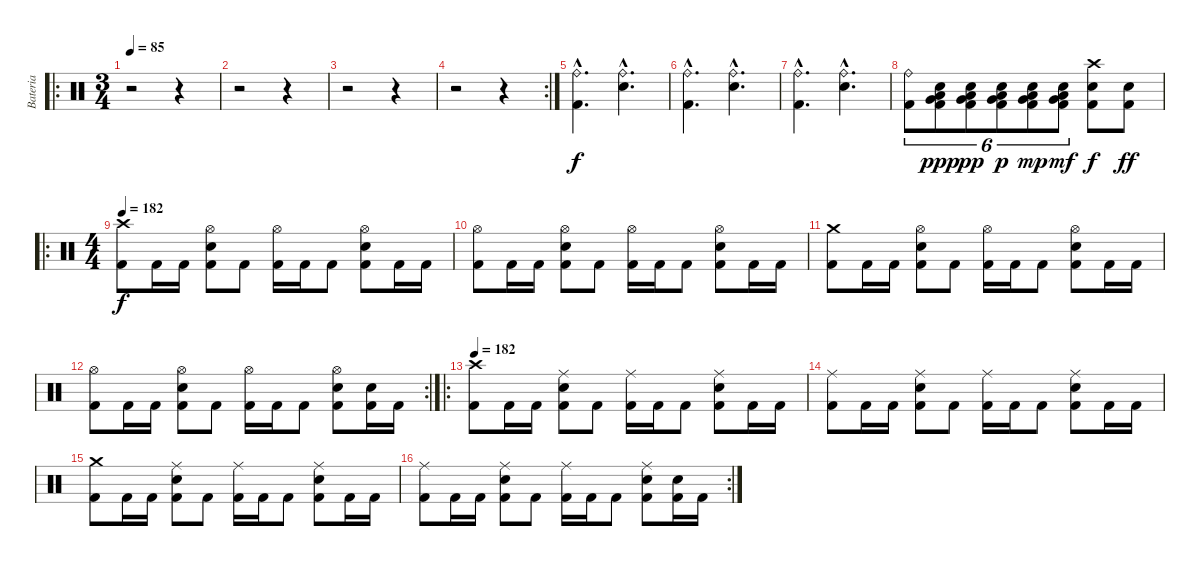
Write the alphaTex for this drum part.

\track ("Bateria" "Bateria") {instrument percussion}
\staff {score}
\articulation defaults
\ro
\ts (3 4)
\tempo 85
\clef neutral
\ks c
r.2{dy f} r.4 |
r.2 r.4 |
r.2 r.4 |
\rc 2
r.2 r.4 |
("Ride (bell)"{hac} "Kick (hit) 2"{hac}).4{d} ("Ride (bell)"{hac} "Snare (hit) 2"{hac}).4{d} |
("Ride (bell)"{hac} "Kick (hit) 2"{hac}).4{d} ("Ride (bell)"{hac} "Snare (hit) 2"{hac}).4{d} |
("Ride (bell)"{hac} "Kick (hit) 2"{hac}).4{d} ("Ride (bell)"{hac} "Snare (hit) 2"{hac}).4{d} |
("Ride (bell)" "Kick (hit) 2").8{tu (6 4)} ("Low Tom (hit)" "Very Low Tom (hit)" "Snare (hit) 2" "Kick (hit) 2").8{tu (6 4) dy ppp} ("Low Tom (hit)" "Very Low Tom (hit)" "Snare (hit) 2" "Kick (hit) 2").8{tu (6 4) dy pp} ("Low Tom (hit)" "Very Low Tom (hit)" "Snare (hit) 2" "Kick (hit) 2").8{tu (6 4) dy p} ("Low Tom (hit)" "Very Low Tom (hit)" "Snare (hit) 2" "Kick (hit) 2").8{tu (6 4) dy mp} ("Low Tom (hit)" "Very Low Tom (hit)" "Snare (hit) 2" "Kick (hit) 2").8{tu (6 4) dy mf} ("Crash high (hit)" "Snare (hit) 2" "Kick (hit) 2").8{dy f} ("Snare (hit) 2" "Kick (hit) 2").8{dy ff} |
\ro
\ts (4 4)
\tempo 182
("Crash high (hit)" "Kick (hit) 2").8{dy f} "Kick (hit) 2".16 "Kick (hit) 2".16 ("Hi-Hat (open)" "Snare (hit) 2" "Kick (hit) 2").8 "Kick (hit) 2".8 ("Hi-Hat (open)" "Kick (hit) 2").16 "Kick (hit) 2".16 "Kick (hit) 2".8 ("Hi-Hat (open)" "Snare (hit) 2" "Kick (hit) 2").8 "Kick (hit) 2".16 "Kick (hit) 2".16 |
("Hi-Hat (open)" "Kick (hit) 2").8 "Kick (hit) 2".16 "Kick (hit) 2".16 ("Hi-Hat (open)" "Snare (hit) 2" "Kick (hit) 2").8 "Kick (hit) 2".8 ("Hi-Hat (open)" "Kick (hit) 2").16 "Kick (hit) 2".16 "Kick (hit) 2".8 ("Hi-Hat (open)" "Snare (hit) 2" "Kick (hit) 2").8 "Kick (hit) 2".16 "Kick (hit) 2".16 |
("Crash medium (hit)" "Kick (hit) 2").8 "Kick (hit) 2".16 "Kick (hit) 2".16 ("Hi-Hat (open)" "Snare (hit) 2" "Kick (hit) 2").8 "Kick (hit) 2".8 ("Hi-Hat (open)" "Kick (hit) 2").16 "Kick (hit) 2".16 "Kick (hit) 2".8 ("Hi-Hat (open)" "Snare (hit) 2" "Kick (hit) 2").8 "Kick (hit) 2".16 "Kick (hit) 2".16 |
\rc 2
("Hi-Hat (open)" "Kick (hit) 2").8 "Kick (hit) 2".16 "Kick (hit) 2".16 ("Hi-Hat (open)" "Snare (hit) 2" "Kick (hit) 2").8 "Kick (hit) 2".8 ("Hi-Hat (open)" "Kick (hit) 2").16 "Kick (hit) 2".16 "Kick (hit) 2".8 ("Hi-Hat (open)" "Snare (hit) 2" "Kick (hit) 2").8 ("Snare (hit) 2" "Kick (hit) 2").16 "Kick (hit) 2".16 |
\ro
\tempo 182
("Crash high (hit)" "Kick (hit) 2").8 "Kick (hit) 2".16 "Kick (hit) 2".16 ("Ride (middle)" "Snare (hit) 2" "Kick (hit) 2").8 "Kick (hit) 2".8 ("Ride (middle)" "Kick (hit) 2").16 "Kick (hit) 2".16 "Kick (hit) 2".8 ("Ride (middle)" "Snare (hit) 2" "Kick (hit) 2").8 "Kick (hit) 2".16 "Kick (hit) 2".16 |
("Ride (middle)" "Kick (hit) 2").8 "Kick (hit) 2".16 "Kick (hit) 2".16 ("Ride (middle)" "Snare (hit) 2" "Kick (hit) 2").8 "Kick (hit) 2".8 ("Ride (middle)" "Kick (hit) 2").16 "Kick (hit) 2".16 "Kick (hit) 2".8 ("Ride (middle)" "Snare (hit) 2" "Kick (hit) 2").8 "Kick (hit) 2".16 "Kick (hit) 2".16 |
("Crash medium (hit)" "Kick (hit) 2").8 "Kick (hit) 2".16 "Kick (hit) 2".16 ("Ride (middle)" "Snare (hit) 2" "Kick (hit) 2").8 "Kick (hit) 2".8 ("Ride (middle)" "Kick (hit) 2").16 "Kick (hit) 2".16 "Kick (hit) 2".8 ("Ride (middle)" "Snare (hit) 2" "Kick (hit) 2").8 "Kick (hit) 2".16 "Kick (hit) 2".16 |
\rc 2
("Ride (middle)" "Kick (hit) 2").8 "Kick (hit) 2".16 "Kick (hit) 2".16 ("Ride (middle)" "Snare (hit) 2" "Kick (hit) 2").8 "Kick (hit) 2".8 ("Ride (middle)" "Kick (hit) 2").16 "Kick (hit) 2".16 "Kick (hit) 2".8 ("Ride (middle)" "Snare (hit) 2" "Kick (hit) 2").8 ("Snare (hit) 2" "Kick (hit) 2").16 "Kick (hit) 2".16
